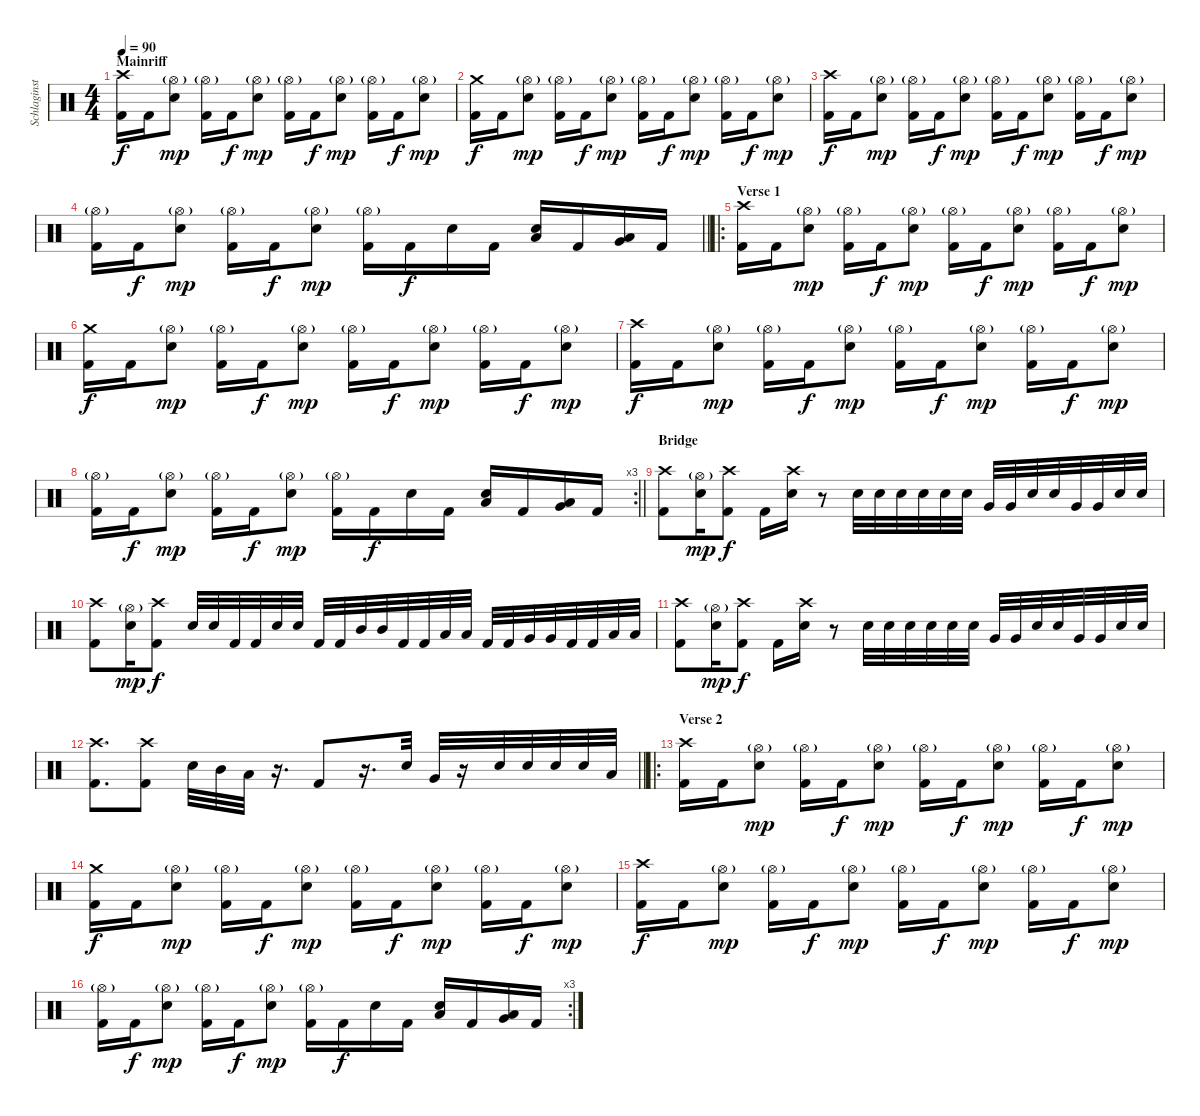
\track ("Schlaginstrumente - Auswahl" "Schlaginst") {instrument percussion}
\staff {score}
\articulation defaults
\ts (4 4)
\section ("" "Mainriff")
\tempo 90
\clef neutral
\ks c
("Crash high (hit)" "Kick (hit) 2").16{dy f} "Kick (hit) 2".16 ("Hi-Hat (open)"{g} "Electric Snare (hit)").8{dy mp} ("Hi-Hat (open)"{g} "Kick (hit) 2").16 "Kick (hit) 2".16{dy f} ("Hi-Hat (open)"{g} "Electric Snare (hit)").8{dy mp} ("Hi-Hat (open)"{g} "Kick (hit) 2").16 "Kick (hit) 2".16{dy f} ("Hi-Hat (open)"{g} "Electric Snare (hit)").8{dy mp} ("Hi-Hat (open)"{g} "Kick (hit) 2").16 "Kick (hit) 2".16{dy f} ("Hi-Hat (open)"{g} "Electric Snare (hit)").8{dy mp} |
("Crash medium (hit)" "Kick (hit) 2").16{dy f} "Kick (hit) 2".16 ("Hi-Hat (open)"{g} "Electric Snare (hit)").8{dy mp} ("Hi-Hat (open)"{g} "Kick (hit) 2").16 "Kick (hit) 2".16{dy f} ("Hi-Hat (open)"{g} "Electric Snare (hit)").8{dy mp} ("Hi-Hat (open)"{g} "Kick (hit) 2").16 "Kick (hit) 2".16{dy f} ("Hi-Hat (open)"{g} "Electric Snare (hit)").8{dy mp} ("Hi-Hat (open)"{g} "Kick (hit) 2").16 "Kick (hit) 2".16{dy f} ("Hi-Hat (open)"{g} "Electric Snare (hit)").8{dy mp} |
("Crash high (hit)" "Kick (hit) 2").16{dy f} "Kick (hit) 2".16 ("Hi-Hat (open)"{g} "Electric Snare (hit)").8{dy mp} ("Hi-Hat (open)"{g} "Kick (hit) 2").16 "Kick (hit) 2".16{dy f} ("Hi-Hat (open)"{g} "Electric Snare (hit)").8{dy mp} ("Hi-Hat (open)"{g} "Kick (hit) 2").16 "Kick (hit) 2".16{dy f} ("Hi-Hat (open)"{g} "Electric Snare (hit)").8{dy mp} ("Hi-Hat (open)"{g} "Kick (hit) 2").16 "Kick (hit) 2".16{dy f} ("Hi-Hat (open)"{g} "Electric Snare (hit)").8{dy mp} |
\barLineRight lightlight
("Hi-Hat (open)"{g} "Kick (hit) 2").16 "Kick (hit) 2".16{dy f} ("Hi-Hat (open)"{g} "Electric Snare (hit)").8{dy mp} ("Hi-Hat (open)"{g} "Kick (hit) 2").16 "Kick (hit) 2".16{dy f} ("Hi-Hat (open)"{g} "Electric Snare (hit)").8{dy mp} ("Hi-Hat (open)"{g} "Kick (hit) 2").16 "Kick (hit) 2".16{dy f} "Electric Snare (hit)".16 "Kick (hit) 2".16 ("Low Floor Tom (hit)" "Electric Snare (hit)").16 "Kick (hit) 2".16 ("Low Floor Tom (hit)" "Very Low Tom (hit)").16 "Kick (hit) 2".16 |
\ro
\section ("" "Verse 1")
("Crash high (hit)" "Kick (hit) 2").16 "Kick (hit) 2".16 ("Hi-Hat (open)"{g} "Electric Snare (hit)").8{dy mp} ("Hi-Hat (open)"{g} "Kick (hit) 2").16 "Kick (hit) 2".16{dy f} ("Hi-Hat (open)"{g} "Electric Snare (hit)").8{dy mp} ("Hi-Hat (open)"{g} "Kick (hit) 2").16 "Kick (hit) 2".16{dy f} ("Hi-Hat (open)"{g} "Electric Snare (hit)").8{dy mp} ("Hi-Hat (open)"{g} "Kick (hit) 2").16 "Kick (hit) 2".16{dy f} ("Hi-Hat (open)"{g} "Electric Snare (hit)").8{dy mp} |
("Crash medium (hit)" "Kick (hit) 2").16{dy f} "Kick (hit) 2".16 ("Hi-Hat (open)"{g} "Electric Snare (hit)").8{dy mp} ("Hi-Hat (open)"{g} "Kick (hit) 2").16 "Kick (hit) 2".16{dy f} ("Hi-Hat (open)"{g} "Electric Snare (hit)").8{dy mp} ("Hi-Hat (open)"{g} "Kick (hit) 2").16 "Kick (hit) 2".16{dy f} ("Hi-Hat (open)"{g} "Electric Snare (hit)").8{dy mp} ("Hi-Hat (open)"{g} "Kick (hit) 2").16 "Kick (hit) 2".16{dy f} ("Hi-Hat (open)"{g} "Electric Snare (hit)").8{dy mp} |
("Crash high (hit)" "Kick (hit) 2").16{dy f} "Kick (hit) 2".16 ("Hi-Hat (open)"{g} "Electric Snare (hit)").8{dy mp} ("Hi-Hat (open)"{g} "Kick (hit) 2").16 "Kick (hit) 2".16{dy f} ("Hi-Hat (open)"{g} "Electric Snare (hit)").8{dy mp} ("Hi-Hat (open)"{g} "Kick (hit) 2").16 "Kick (hit) 2".16{dy f} ("Hi-Hat (open)"{g} "Electric Snare (hit)").8{dy mp} ("Hi-Hat (open)"{g} "Kick (hit) 2").16 "Kick (hit) 2".16{dy f} ("Hi-Hat (open)"{g} "Electric Snare (hit)").8{dy mp} |
\rc 3
\barLineRight lightlight
("Hi-Hat (open)"{g} "Kick (hit) 2").16 "Kick (hit) 2".16{dy f} ("Hi-Hat (open)"{g} "Electric Snare (hit)").8{dy mp} ("Hi-Hat (open)"{g} "Kick (hit) 2").16 "Kick (hit) 2".16{dy f} ("Hi-Hat (open)"{g} "Electric Snare (hit)").8{dy mp} ("Hi-Hat (open)"{g} "Kick (hit) 2").16 "Kick (hit) 2".16{dy f} "Electric Snare (hit)".16 "Kick (hit) 2".16 ("Low Floor Tom (hit)" "Electric Snare (hit)").16 "Kick (hit) 2".16 ("Low Floor Tom (hit)" "Very Low Tom (hit)").16 "Kick (hit) 2".16 |
\section ("" "Bridge")
("Crash high (hit)" "Kick (hit) 2").8 ("Hi-Hat (open)"{g} "Electric Snare (hit)").16{dy mp} ("Crash high (hit)" "Kick (hit) 2").8{dy f} "Kick (hit) 2".16 ("Crash high (hit)" "Electric Snare (hit)").16 r.8 "Electric Snare (hit)".32 "Electric Snare (hit)".32 "Electric Snare (hit)".32 "Electric Snare (hit)".32 "Electric Snare (hit)".32 "Electric Snare (hit)".32 "Very Low Tom (hit)".32 "Very Low Tom (hit)".32 "Electric Snare (hit)".32 "Electric Snare (hit)".32 "Very Low Tom (hit)".32 "Very Low Tom (hit)".32 "Electric Snare (hit)".32 "Electric Snare (hit)".32 |
("Crash high (hit)" "Kick (hit) 2").8 ("Hi-Hat (open)"{g} "Electric Snare (hit)").16{dy mp} ("Crash high (hit)" "Kick (hit) 2").8{dy f} "Electric Snare (hit)".32 "Electric Snare (hit)".32 "Kick (hit) 2".32 "Kick (hit) 2".32 "Electric Snare (hit)".32 "Electric Snare (hit)".32 "Kick (hit) 2".32 "Kick (hit) 2".32 "Mid Tom (hit)".32 "Mid Tom (hit)".32 "Kick (hit) 2".32 "Kick (hit) 2".32 "Low Tom (hit)".32 "Low Tom (hit)".32 "Kick (hit) 2".32 "Kick (hit) 2".32 "Very Low Tom (hit)".32 "Very Low Tom (hit)".32 "Kick (hit) 2".32 "Kick (hit) 2".32 "Low Floor Tom (hit)".32 "Low Floor Tom (hit)".32 |
("Crash high (hit)" "Kick (hit) 2").8 ("Hi-Hat (open)"{g} "Electric Snare (hit)").16{dy mp} ("Crash high (hit)" "Kick (hit) 2").8{dy f} "Kick (hit) 2".16 ("Crash high (hit)" "Electric Snare (hit)").16 r.8 "Electric Snare (hit)".32 "Electric Snare (hit)".32 "Electric Snare (hit)".32 "Electric Snare (hit)".32 "Electric Snare (hit)".32 "Electric Snare (hit)".32 "Very Low Tom (hit)".32 "Very Low Tom (hit)".32 "Electric Snare (hit)".32 "Electric Snare (hit)".32 "Very Low Tom (hit)".32 "Very Low Tom (hit)".32 "Electric Snare (hit)".32 "Electric Snare (hit)".32 |
\barLineRight lightlight
("Crash high (hit)" "Kick (hit) 2").8{d} ("Crash high (hit)" "Kick (hit) 2").8 "Electric Snare (hit)".32 "Mid Tom (hit)".32 "Low Floor Tom (hit)".32 r.16{d} "Kick (hit) 2".8 r.16{d} "Electric Snare (hit)".32 "Very Low Tom (hit)".32 r.16 "Electric Snare (hit)".32 "Electric Snare (hit)".32 "Electric Snare (hit)".32 "Electric Snare (hit)".32 "Low Tom (hit)".32 |
\ro
\section ("" "Verse 2")
("Crash high (hit)" "Kick (hit) 2").16 "Kick (hit) 2".16 ("Hi-Hat (open)"{g} "Electric Snare (hit)").8{dy mp} ("Hi-Hat (open)"{g} "Kick (hit) 2").16 "Kick (hit) 2".16{dy f} ("Hi-Hat (open)"{g} "Electric Snare (hit)").8{dy mp} ("Hi-Hat (open)"{g} "Kick (hit) 2").16 "Kick (hit) 2".16{dy f} ("Hi-Hat (open)"{g} "Electric Snare (hit)").8{dy mp} ("Hi-Hat (open)"{g} "Kick (hit) 2").16 "Kick (hit) 2".16{dy f} ("Hi-Hat (open)"{g} "Electric Snare (hit)").8{dy mp} |
("Crash medium (hit)" "Kick (hit) 2").16{dy f} "Kick (hit) 2".16 ("Hi-Hat (open)"{g} "Electric Snare (hit)").8{dy mp} ("Hi-Hat (open)"{g} "Kick (hit) 2").16 "Kick (hit) 2".16{dy f} ("Hi-Hat (open)"{g} "Electric Snare (hit)").8{dy mp} ("Hi-Hat (open)"{g} "Kick (hit) 2").16 "Kick (hit) 2".16{dy f} ("Hi-Hat (open)"{g} "Electric Snare (hit)").8{dy mp} ("Hi-Hat (open)"{g} "Kick (hit) 2").16 "Kick (hit) 2".16{dy f} ("Hi-Hat (open)"{g} "Electric Snare (hit)").8{dy mp} |
("Crash high (hit)" "Kick (hit) 2").16{dy f} "Kick (hit) 2".16 ("Hi-Hat (open)"{g} "Electric Snare (hit)").8{dy mp} ("Hi-Hat (open)"{g} "Kick (hit) 2").16 "Kick (hit) 2".16{dy f} ("Hi-Hat (open)"{g} "Electric Snare (hit)").8{dy mp} ("Hi-Hat (open)"{g} "Kick (hit) 2").16 "Kick (hit) 2".16{dy f} ("Hi-Hat (open)"{g} "Electric Snare (hit)").8{dy mp} ("Hi-Hat (open)"{g} "Kick (hit) 2").16 "Kick (hit) 2".16{dy f} ("Hi-Hat (open)"{g} "Electric Snare (hit)").8{dy mp} |
\rc 3
("Hi-Hat (open)"{g} "Kick (hit) 2").16 "Kick (hit) 2".16{dy f} ("Hi-Hat (open)"{g} "Electric Snare (hit)").8{dy mp} ("Hi-Hat (open)"{g} "Kick (hit) 2").16 "Kick (hit) 2".16{dy f} ("Hi-Hat (open)"{g} "Electric Snare (hit)").8{dy mp} ("Hi-Hat (open)"{g} "Kick (hit) 2").16 "Kick (hit) 2".16{dy f} "Electric Snare (hit)".16 "Kick (hit) 2".16 ("Low Floor Tom (hit)" "Electric Snare (hit)").16 "Kick (hit) 2".16 ("Low Floor Tom (hit)" "Very Low Tom (hit)").16 "Kick (hit) 2".16
